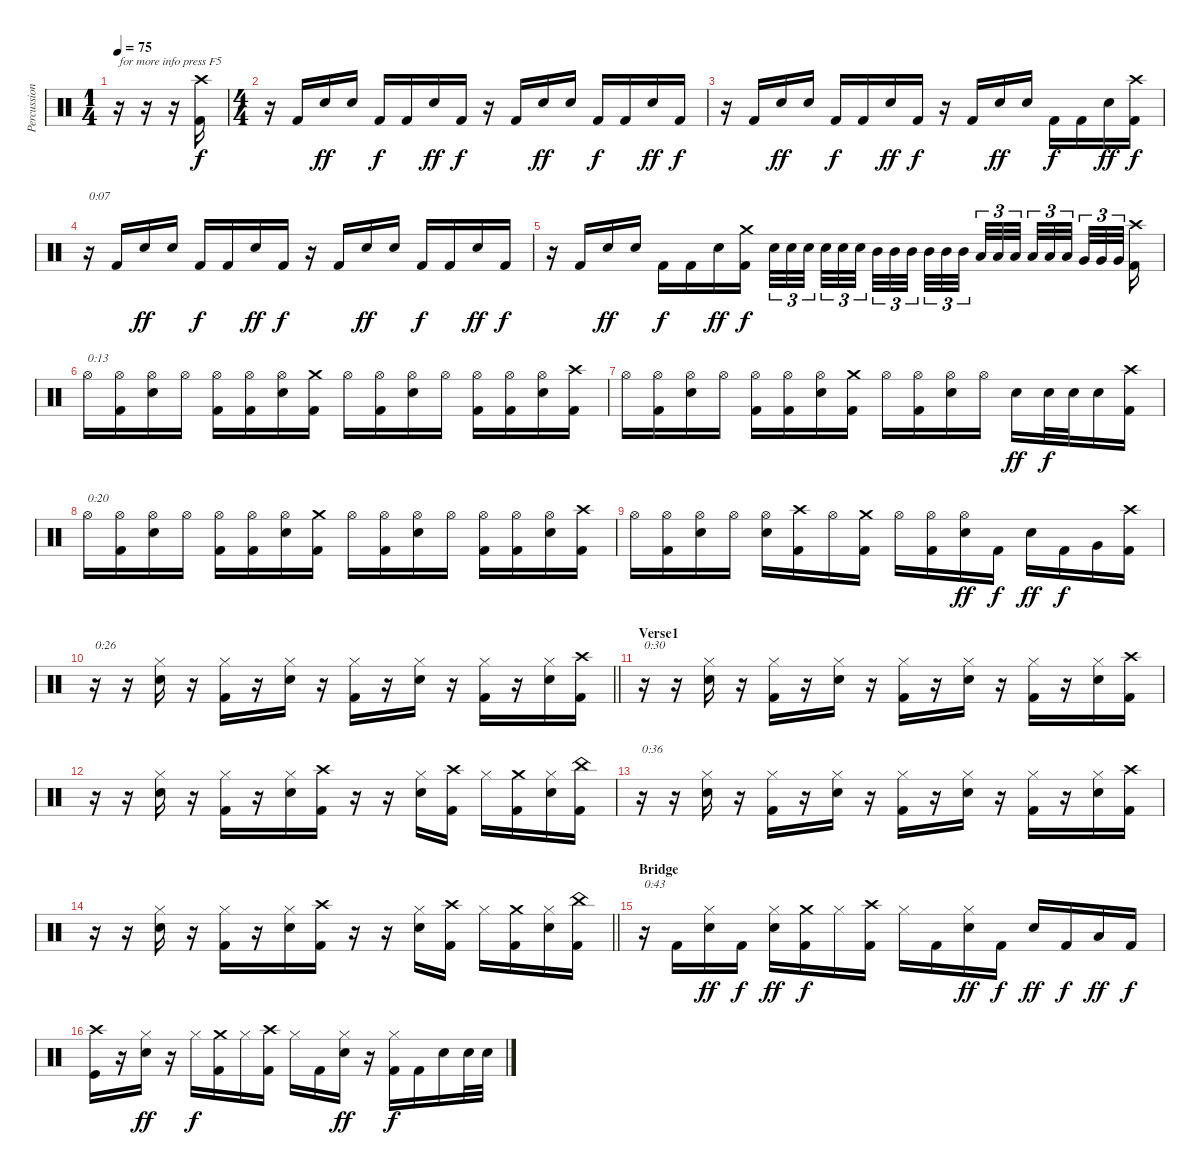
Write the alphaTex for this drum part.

\track ("Percussion" "Percussion") {instrument percussion}
\staff {score}
\articulation defaults
\ts (1 4)
\tempo 75
\clef neutral
\ks c
r.16{txt "for more info press F5" dy f} r.16 r.16 ("Crash high (hit)" "Kick (hit) 2").16 |
\ts (4 4)
r.16 "Kick (hit) 2".16 "Electric Snare (hit)".16{dy ff} "Electric Snare (hit)".16 "Kick (hit) 2".16{dy f} "Kick (hit) 2".16 "Electric Snare (hit)".16{dy ff} "Kick (hit) 2".16{dy f} r.16 "Kick (hit) 2".16 "Electric Snare (hit)".16{dy ff} "Electric Snare (hit)".16 "Kick (hit) 2".16{dy f} "Kick (hit) 2".16 "Electric Snare (hit)".16{dy ff} "Kick (hit) 2".16{dy f} |
r.16 "Kick (hit) 2".16 "Electric Snare (hit)".16{dy ff} "Electric Snare (hit)".16 "Kick (hit) 2".16{dy f} "Kick (hit) 2".16 "Electric Snare (hit)".16{dy ff} "Kick (hit) 2".16{dy f} r.16 "Kick (hit) 2".16 "Electric Snare (hit)".16{dy ff} "Electric Snare (hit)".16 "Kick (hit) 2".16{dy f} "Kick (hit) 2".16 "Electric Snare (hit)".16{dy ff} ("Crash high (hit)" "Kick (hit) 2").16{dy f} |
r.16{txt "0:07"} "Kick (hit) 2".16 "Electric Snare (hit)".16{dy ff} "Electric Snare (hit)".16 "Kick (hit) 2".16{dy f} "Kick (hit) 2".16 "Electric Snare (hit)".16{dy ff} "Kick (hit) 2".16{dy f} r.16 "Kick (hit) 2".16 "Electric Snare (hit)".16{dy ff} "Electric Snare (hit)".16 "Kick (hit) 2".16{dy f} "Kick (hit) 2".16 "Electric Snare (hit)".16{dy ff} "Kick (hit) 2".16{dy f} |
r.16 "Kick (hit) 2".16 "Electric Snare (hit)".16{dy ff} "Electric Snare (hit)".16 "Kick (hit) 2".16{dy f} "Kick (hit) 2".16 "Electric Snare (hit)".16{dy ff} ("Crash medium (hit)" "Kick (hit) 2").16{dy f} "Electric Snare (hit)".32{tu (3 2)} "Electric Snare (hit)".32{tu (3 2)} "Electric Snare (hit)".32{tu (3 2)} "Electric Snare (hit)".32{tu (3 2)} "Electric Snare (hit)".32{tu (3 2)} "Electric Snare (hit)".32{tu (3 2)} "Mid Tom (hit)".32{tu (3 2)} "Mid Tom (hit)".32{tu (3 2)} "Mid Tom (hit)".32{tu (3 2)} "Mid Tom (hit)".32{tu (3 2)} "Mid Tom (hit)".32{tu (3 2)} "Mid Tom (hit)".32{tu (3 2)} "Low Tom (hit)".32{tu (3 2)} "Low Tom (hit)".32{tu (3 2)} "Low Tom (hit)".32{tu (3 2)} "Low Tom (hit)".32{tu (3 2)} "Low Tom (hit)".32{tu (3 2)} "Low Tom (hit)".32{tu (3 2)} "Very Low Tom (hit)".32{tu (3 2)} "Very Low Tom (hit)".32{tu (3 2)} "Very Low Tom (hit)".32{tu (3 2)} ("Crash high (hit)" "Kick (hit) 2").16 |
"Hi-Hat (open)".16{txt "0:13"} ("Hi-Hat (open)" "Kick (hit) 2").16 ("Hi-Hat (open)" "Electric Snare (hit)").16 "Hi-Hat (open)".16 ("Hi-Hat (open)" "Kick (hit) 2").16 ("Hi-Hat (open)" "Kick (hit) 2").16 ("Hi-Hat (open)" "Electric Snare (hit)").16 ("Crash medium (hit)" "Kick (hit) 2").16 "Hi-Hat (open)".16 ("Hi-Hat (open)" "Kick (hit) 2").16 ("Hi-Hat (open)" "Electric Snare (hit)").16 "Hi-Hat (open)".16 ("Hi-Hat (open)" "Kick (hit) 2").16 ("Hi-Hat (open)" "Kick (hit) 2").16 ("Hi-Hat (open)" "Electric Snare (hit)").16 ("Crash high (hit)" "Kick (hit) 2").16 |
"Hi-Hat (open)".16 ("Hi-Hat (open)" "Kick (hit) 2").16 ("Hi-Hat (open)" "Electric Snare (hit)").16 "Hi-Hat (open)".16 ("Hi-Hat (open)" "Kick (hit) 2").16 ("Hi-Hat (open)" "Kick (hit) 2").16 ("Hi-Hat (open)" "Electric Snare (hit)").16 ("Crash medium (hit)" "Kick (hit) 2").16 "Hi-Hat (open)".16 ("Hi-Hat (open)" "Kick (hit) 2").16 ("Hi-Hat (open)" "Electric Snare (hit)").16 "Hi-Hat (open)".16 "Electric Snare (hit)".16{dy ff} "Electric Snare (hit)".32{dy f} "Electric Snare (hit)".32 "Electric Snare (hit)".16 ("Crash high (hit)" "Kick (hit) 2").16 |
"Hi-Hat (open)".16{txt "0:20"} ("Hi-Hat (open)" "Kick (hit) 2").16 ("Hi-Hat (open)" "Electric Snare (hit)").16 "Hi-Hat (open)".16 ("Hi-Hat (open)" "Kick (hit) 2").16 ("Hi-Hat (open)" "Kick (hit) 2").16 ("Hi-Hat (open)" "Electric Snare (hit)").16 ("Crash medium (hit)" "Kick (hit) 2").16 "Hi-Hat (open)".16 ("Hi-Hat (open)" "Kick (hit) 2").16 ("Hi-Hat (open)" "Electric Snare (hit)").16 "Hi-Hat (open)".16 ("Hi-Hat (open)" "Kick (hit) 2").16 ("Hi-Hat (open)" "Kick (hit) 2").16 ("Hi-Hat (open)" "Electric Snare (hit)").16 ("Crash high (hit)" "Kick (hit) 2").16 |
"Hi-Hat (open)".16 ("Hi-Hat (open)" "Kick (hit) 2").16 ("Hi-Hat (open)" "Electric Snare (hit)").16 "Hi-Hat (open)".16 ("Hi-Hat (open)" "Electric Snare (hit)").16 ("Crash high (hit)" "Kick (hit) 2").16 "Hi-Hat (open)".16 ("Crash medium (hit)" "Kick (hit) 2").16 "Hi-Hat (open)".16 ("Hi-Hat (open)" "Kick (hit) 2").16 ("Hi-Hat (open)" "Electric Snare (hit)").16{dy ff} "Kick (hit) 2".16{dy f} "Electric Snare (hit)".16{dy ff} "Kick (hit) 2".16{dy f} "Very Low Tom (hit)".16 ("Crash high (hit)" "Kick (hit) 2").16 |
\barLineRight lightlight
r.16{txt "0:26"} r.16 ("Hi-Hat (closed)" "Electric Snare (hit)").16 r.16 ("Hi-Hat (closed)" "Kick (hit) 2").16 r.16 ("Hi-Hat (closed)" "Electric Snare (hit)").16 r.16 ("Hi-Hat (closed)" "Kick (hit) 2").16 r.16 ("Hi-Hat (closed)" "Electric Snare (hit)").16 r.16 ("Hi-Hat (closed)" "Kick (hit) 2").16 r.16 ("Hi-Hat (closed)" "Electric Snare (hit)").16 ("Crash high (hit)" "Kick (hit) 2").16 |
\section ("" "Verse1")
r.16{txt "0:30"} r.16 ("Hi-Hat (closed)" "Electric Snare (hit)").16 r.16 ("Hi-Hat (closed)" "Kick (hit) 2").16 r.16 ("Hi-Hat (closed)" "Electric Snare (hit)").16 r.16 ("Hi-Hat (closed)" "Kick (hit) 2").16 r.16 ("Hi-Hat (closed)" "Electric Snare (hit)").16 r.16 ("Hi-Hat (closed)" "Kick (hit) 2").16 r.16 ("Hi-Hat (closed)" "Electric Snare (hit)").16 ("Crash high (hit)" "Kick (hit) 2").16 |
r.16 r.16 ("Hi-Hat (closed)" "Electric Snare (hit)").16 r.16 ("Hi-Hat (closed)" "Kick (hit) 2").16 r.16 ("Hi-Hat (closed)" "Electric Snare (hit)").16 ("Crash high (hit)" "Kick (hit) 2").16 r.16 r.16 ("Hi-Hat (closed)" "Electric Snare (hit)").16 ("Crash high (hit)" "Kick (hit) 2").16 "Hi-Hat (closed)".16 ("Crash medium (hit)" "Kick (hit) 2").16 ("Hi-Hat (closed)" "Electric Snare (hit)").16 ("China (hit)" "Kick (hit) 2").16 |
r.16{txt "0:36"} r.16 ("Hi-Hat (closed)" "Electric Snare (hit)").16 r.16 ("Hi-Hat (closed)" "Kick (hit) 2").16 r.16 ("Hi-Hat (closed)" "Electric Snare (hit)").16 r.16 ("Hi-Hat (closed)" "Kick (hit) 2").16 r.16 ("Hi-Hat (closed)" "Electric Snare (hit)").16 r.16 ("Hi-Hat (closed)" "Kick (hit) 2").16 r.16 ("Hi-Hat (closed)" "Electric Snare (hit)").16 ("Crash high (hit)" "Kick (hit) 2").16 |
\barLineRight lightlight
r.16 r.16 ("Hi-Hat (closed)" "Electric Snare (hit)").16 r.16 ("Hi-Hat (closed)" "Kick (hit) 2").16 r.16 ("Hi-Hat (closed)" "Electric Snare (hit)").16 ("Crash high (hit)" "Kick (hit) 2").16 r.16 r.16 ("Hi-Hat (closed)" "Electric Snare (hit)").16 ("Crash high (hit)" "Kick (hit) 2").16 "Hi-Hat (closed)".16 ("Crash medium (hit)" "Kick (hit) 2").16 ("Hi-Hat (closed)" "Electric Snare (hit)").16 ("China (hit)" "Kick (hit) 2").16 |
\section ("" "Bridge")
r.16{txt "0:43"} "Kick (hit) 2".16 ("Hi-Hat (closed)" "Electric Snare (hit)").16{dy ff} "Kick (hit) 2".16{dy f} ("Hi-Hat (closed)" "Electric Snare (hit)").16{dy ff} ("Crash medium (hit)" "Kick (hit) 2").16{dy f} "Hi-Hat (closed)".16 ("Crash high (hit)" "Kick (hit) 2").16 "Hi-Hat (closed)".16 "Kick (hit) 2".16 ("Hi-Hat (closed)" "Electric Snare (hit)").16{dy ff} "Kick (hit) 2".16{dy f} "Electric Snare (hit)".16{dy ff} "Kick (hit) 2".16{dy f} "Low Floor Tom (hit)".16{dy ff} "Kick (hit) 2".16{dy f} |
("Crash high (hit)" "Kick (hit)").16 r.16 ("Hi-Hat (closed)" "Electric Snare (hit)").16{dy ff} r.16 "Hi-Hat (closed)".16{dy f} ("Crash medium (hit)" "Kick (hit) 2").16 "Hi-Hat (closed)".16 ("Crash high (hit)" "Kick (hit) 2").16 "Hi-Hat (closed)".16 "Kick (hit) 2".16 ("Hi-Hat (closed)" "Electric Snare (hit)").16{dy ff} r.16 ("Hi-Hat (closed)" "Kick (hit) 2").16{dy f} "Kick (hit) 2".16 "Electric Snare (hit)".16 "Electric Snare (hit)".32 "Electric Snare (hit)".32
